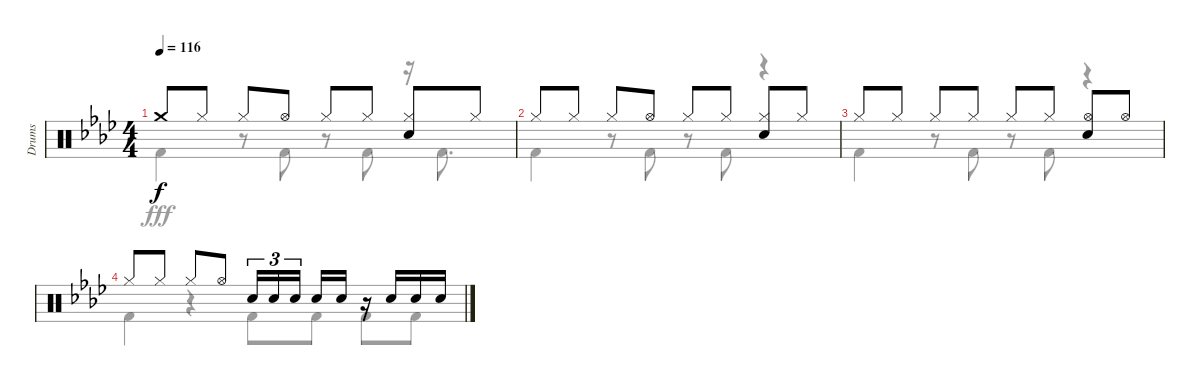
\track ("Drums" "Drums") {instrument percussion}
\staff {score}
\articulation defaults
\voice
\ts (4 4)
\tempo 116
\clef neutral
\ks ab "Crash medium (hit)".8{dy f volume 0} "Hi-Hat (closed)".8 "Hi-Hat (closed)".8 "Hi-Hat (open)".8 "Hi-Hat (closed)".8 "Hi-Hat (closed)".8
("Hi-Hat (closed)" "Snare (hit) 2").8 "Hi-Hat (closed)".8 |
"Hi-Hat (closed)".8 "Hi-Hat (closed)".8 "Hi-Hat (closed)".8 "Hi-Hat (open)".8 "Hi-Hat (closed)".8 "Hi-Hat (closed)".8 ("Hi-Hat (closed)" "Snare (hit) 2").8 "Hi-Hat (closed)".8 |
"Hi-Hat (closed)".8 "Hi-Hat (closed)".8 "Hi-Hat (closed)".8 "Hi-Hat (closed)".8 "Hi-Hat (closed)".8 "Hi-Hat (closed)".8 ("Hi-Hat (open)" "Snare (hit) 2").8 "Hi-Hat (open)".8 |
"Hi-Hat (closed)".8 "Hi-Hat (closed)".8 "Hi-Hat (closed)".8 "Hi-Hat (open)".8 "Snare (hit) 2".16{tu (3 2)} "Snare (hit) 2".16{tu (3 2)} "Snare (hit) 2".16{tu (3 2) beam splitsecondary} "Snare (hit) 2".16 "Snare (hit) 2".16 r.16 "Snare (hit) 2".16 "Snare (hit) 2".16 "Snare (hit) 2".16
\voice
\clef neutral
\ottava regular
\simile none
\ks ab "Kick (hit) 2".4{dy fff}
r.8 "Kick (hit) 2".8 r.8 "Kick (hit) 2".8 r.16 "Kick (hit) 2".8{d} |
"Kick (hit) 2".4 r.8 "Kick (hit) 2".8 r.8 "Kick (hit) 2".8 r.4 |
"Kick (hit) 2".4 r.8 "Kick (hit) 2".8 r.8 "Kick (hit) 2".8 r.4 |
"Kick (hit) 2".4 r.4 "Kick (hit) 2".8 "Kick (hit) 2".8 "Kick (hit) 2".8 "Kick (hit) 2".8
